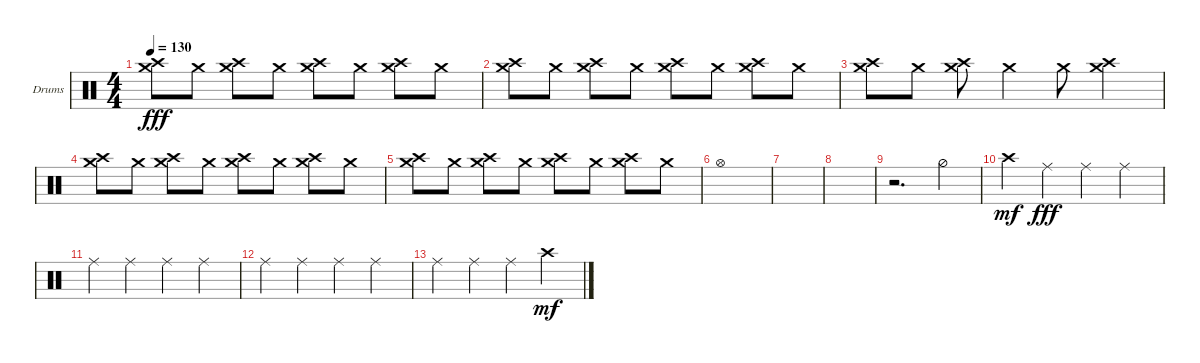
\defaultSystemsLayout 4
\bracketExtendMode groupsimilarinstruments
\firstSystemTrackNameOrientation horizontal
\otherSystemsTrackNameOrientation horizontal
\track ("Helders" "Drums") {instrument percussion}
\staff {score}
\articulation defaults
\ts (4 4)
\tempo 130
\clef neutral
\ks c
("Crash medium (hit)" "Crash high (hit)").8{dy fff} "Crash medium (hit)".8 ("Crash medium (hit)" "Crash high (hit)").8 "Crash medium (hit)".8 ("Crash medium (hit)" "Crash high (hit)").8 "Crash medium (hit)".8 ("Crash medium (hit)" "Crash high (hit)").8 "Crash medium (hit)".8 |
("Crash medium (hit)" "Crash high (hit)").8 "Crash medium (hit)".8 ("Crash medium (hit)" "Crash high (hit)").8 "Crash medium (hit)".8 ("Crash medium (hit)" "Crash high (hit)").8 "Crash medium (hit)".8 ("Crash medium (hit)" "Crash high (hit)").8 "Crash medium (hit)".8 |
("Crash medium (hit)" "Crash high (hit)").8 "Crash medium (hit)".8 ("Crash medium (hit)" "Crash high (hit)").8 "Crash medium (hit)".4 "Crash medium (hit)".8 ("Crash medium (hit)" "Crash high (hit)").4 |
("Crash medium (hit)" "Crash high (hit)").8 "Crash medium (hit)".8 ("Crash medium (hit)" "Crash high (hit)").8 "Crash medium (hit)".8 ("Crash medium (hit)" "Crash high (hit)").8 "Crash medium (hit)".8 ("Crash medium (hit)" "Crash high (hit)").8 "Crash medium (hit)".8 |
("Crash medium (hit)" "Crash high (hit)").8 "Crash medium (hit)".8 ("Crash medium (hit)" "Crash high (hit)").8 "Crash medium (hit)".8 ("Crash medium (hit)" "Crash high (hit)").8 "Crash medium (hit)".8 ("Crash medium (hit)" "Crash high (hit)").8 "Crash medium (hit)".8 |
"Hi-Hat (open)".1 |
|
|
r.2{d} "Hi-Hat (half)".4 |
"Crash high (hit)".4{dy mf} "Ride (middle)".4{dy fff} "Ride (middle)".4 "Ride (middle)".4 |
"Ride (middle)".4 "Ride (middle)".4 "Ride (middle)".4 "Ride (middle)".4 |
"Ride (middle)".4 "Ride (middle)".4 "Ride (middle)".4 "Ride (middle)".4 |
"Ride (middle)".4 "Ride (middle)".4 "Ride (middle)".4 "Crash high (hit)".4{dy mf}
